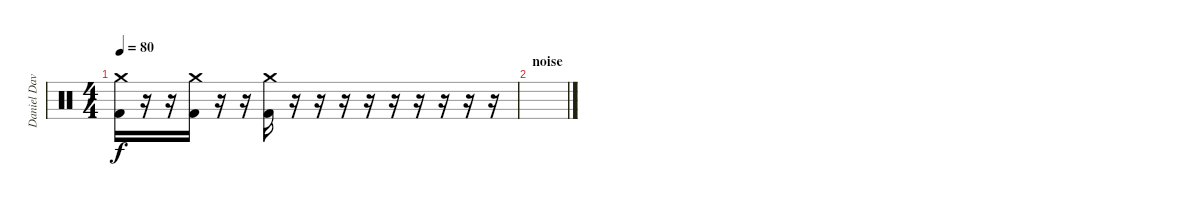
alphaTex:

\track ("Daniel Davison" "Daniel Dav") {instrument percussion}
\staff {score}
\articulation defaults
\ts (4 4)
\tempo 80
\clef neutral
\ks c
("Crash medium (hit)" "Kick (hit) 2").16{dy f} r.16 r.16 ("Crash medium (hit)" "Kick (hit) 2").16 r.16 r.16 ("Crash medium (hit)" "Kick (hit) 2").16 r.16 r.16 r.16 r.16 r.16 r.16 r.16 r.16 r.16 |
\section ("" "noise")
